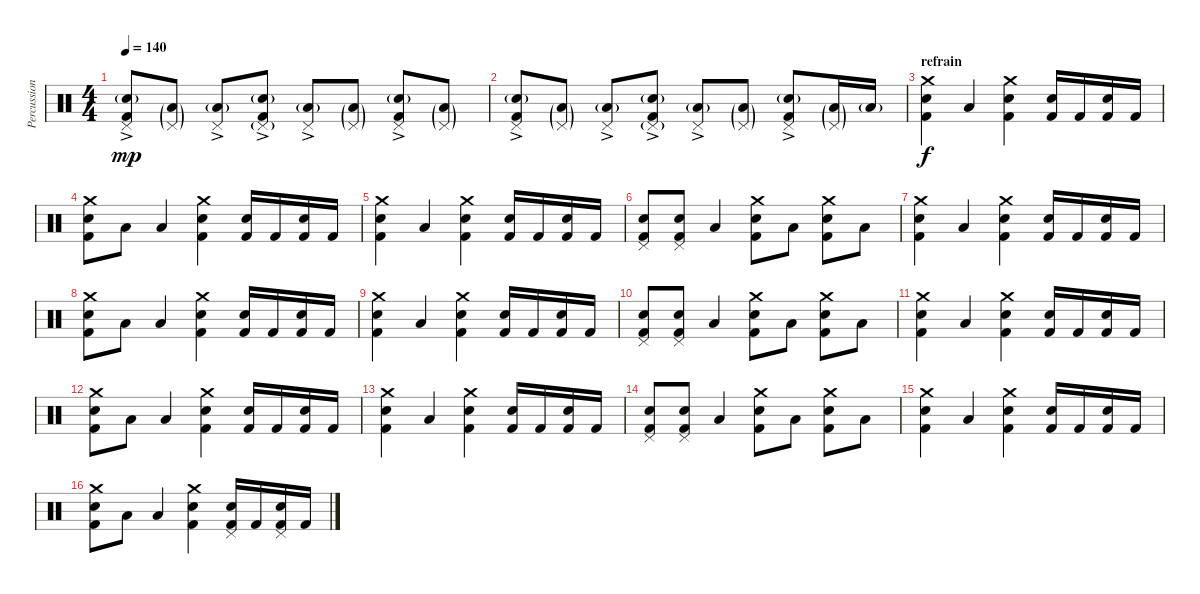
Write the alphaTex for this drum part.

\track ("Percussions" "Percussion") {instrument percussion}
\staff {score}
\articulation defaults
\ts (4 4)
\tempo 140
\clef neutral
\ks c
("Pedal Hi-Hat (hit)"{ac} "Electric Snare (hit)"{g ac} "Kick (hit) 2").8{dy mp} ("Pedal Hi-Hat (hit)"{g} "Low Tom (hit)"{g}).8 ("Pedal Hi-Hat (hit)"{ac} "Low Tom (hit)"{g}).8 ("Pedal Hi-Hat (hit)"{g} "Electric Snare (hit)"{g ac} "Kick (hit) 2").8 ("Pedal Hi-Hat (hit)"{ac} "Low Tom (hit)"{g}).8 ("Pedal Hi-Hat (hit)"{g} "Low Tom (hit)"{g}).8 ("Pedal Hi-Hat (hit)"{ac} "Electric Snare (hit)"{g ac} "Kick (hit) 2").8 ("Pedal Hi-Hat (hit)"{g} "Low Tom (hit)"{g}).8 |
("Pedal Hi-Hat (hit)"{ac} "Electric Snare (hit)"{g ac} "Kick (hit) 2").8 ("Pedal Hi-Hat (hit)"{g} "Low Tom (hit)"{g}).8 ("Pedal Hi-Hat (hit)"{ac} "Low Tom (hit)"{g}).8 ("Pedal Hi-Hat (hit)"{g} "Electric Snare (hit)"{g ac} "Kick (hit) 2").8 ("Pedal Hi-Hat (hit)"{ac} "Low Tom (hit)"{g}).8 ("Pedal Hi-Hat (hit)"{g} "Low Tom (hit)"{g}).8 ("Pedal Hi-Hat (hit)"{ac} "Electric Snare (hit)"{g ac} "Kick (hit) 2").8 ("Pedal Hi-Hat (hit)"{g} "Low Tom (hit)"{g}).16 "Low Tom (hit)"{g}.16 |
\section ("" "refrain")
("Crash medium (hit)" "Electric Snare (hit)" "Kick (hit) 2").4{dy f} "Low Tom (hit)".4 ("Crash medium (hit)" "Electric Snare (hit)" "Kick (hit) 2").4 ("Electric Snare (hit)" "Kick (hit) 2").16 "Kick (hit) 2".16 ("Electric Snare (hit)" "Kick (hit) 2").16 "Kick (hit) 2".16 |
("Crash medium (hit)" "Electric Snare (hit)" "Kick (hit) 2").8 "Low Tom (hit)".8 "Low Tom (hit)".4 ("Crash medium (hit)" "Electric Snare (hit)" "Kick (hit) 2").4 ("Electric Snare (hit)" "Kick (hit) 2").16 "Kick (hit) 2".16 ("Electric Snare (hit)" "Kick (hit) 2").16 "Kick (hit) 2".16 |
("Crash medium (hit)" "Electric Snare (hit)" "Kick (hit) 2").4 "Low Tom (hit)".4 ("Crash medium (hit)" "Electric Snare (hit)" "Kick (hit) 2").4 ("Electric Snare (hit)" "Kick (hit) 2").16 "Kick (hit) 2".16 ("Electric Snare (hit)" "Kick (hit) 2").16 "Kick (hit) 2".16 |
("Pedal Hi-Hat (hit)" "Electric Snare (hit)" "Kick (hit) 2").8 ("Pedal Hi-Hat (hit)" "Electric Snare (hit)" "Kick (hit) 2").8 "Low Tom (hit)".4 ("Crash medium (hit)" "Electric Snare (hit)" "Kick (hit) 2").8 "Low Tom (hit)".8 ("Crash medium (hit)" "Electric Snare (hit)" "Kick (hit) 2").8 "Low Tom (hit)".8 |
("Crash medium (hit)" "Electric Snare (hit)" "Kick (hit) 2").4 "Low Tom (hit)".4 ("Crash medium (hit)" "Electric Snare (hit)" "Kick (hit) 2").4 ("Electric Snare (hit)" "Kick (hit) 2").16 "Kick (hit) 2".16 ("Electric Snare (hit)" "Kick (hit) 2").16 "Kick (hit) 2".16 |
("Crash medium (hit)" "Electric Snare (hit)" "Kick (hit) 2").8 "Low Tom (hit)".8 "Low Tom (hit)".4 ("Crash medium (hit)" "Electric Snare (hit)" "Kick (hit) 2").4 ("Electric Snare (hit)" "Kick (hit) 2").16 "Kick (hit) 2".16 ("Electric Snare (hit)" "Kick (hit) 2").16 "Kick (hit) 2".16 |
("Crash medium (hit)" "Electric Snare (hit)" "Kick (hit) 2").4 "Low Tom (hit)".4 ("Crash medium (hit)" "Electric Snare (hit)" "Kick (hit) 2").4 ("Electric Snare (hit)" "Kick (hit) 2").16 "Kick (hit) 2".16 ("Electric Snare (hit)" "Kick (hit) 2").16 "Kick (hit) 2".16 |
("Pedal Hi-Hat (hit)" "Electric Snare (hit)" "Kick (hit) 2").8 ("Pedal Hi-Hat (hit)" "Electric Snare (hit)" "Kick (hit) 2").8 "Low Tom (hit)".4 ("Crash medium (hit)" "Electric Snare (hit)" "Kick (hit) 2").8 "Low Tom (hit)".8 ("Crash medium (hit)" "Electric Snare (hit)" "Kick (hit) 2").8 "Low Tom (hit)".8 |
("Crash medium (hit)" "Electric Snare (hit)" "Kick (hit) 2").4 "Low Tom (hit)".4 ("Crash medium (hit)" "Electric Snare (hit)" "Kick (hit) 2").4 ("Electric Snare (hit)" "Kick (hit) 2").16 "Kick (hit) 2".16 ("Electric Snare (hit)" "Kick (hit) 2").16 "Kick (hit) 2".16 |
("Crash medium (hit)" "Electric Snare (hit)" "Kick (hit) 2").8 "Low Tom (hit)".8 "Low Tom (hit)".4 ("Crash medium (hit)" "Electric Snare (hit)" "Kick (hit) 2").4 ("Electric Snare (hit)" "Kick (hit) 2").16 "Kick (hit) 2".16 ("Electric Snare (hit)" "Kick (hit) 2").16 "Kick (hit) 2".16 |
("Crash medium (hit)" "Electric Snare (hit)" "Kick (hit) 2").4 "Low Tom (hit)".4 ("Crash medium (hit)" "Electric Snare (hit)" "Kick (hit) 2").4 ("Electric Snare (hit)" "Kick (hit) 2").16 "Kick (hit) 2".16 ("Electric Snare (hit)" "Kick (hit) 2").16 "Kick (hit) 2".16 |
("Pedal Hi-Hat (hit)" "Electric Snare (hit)" "Kick (hit) 2").8 ("Pedal Hi-Hat (hit)" "Electric Snare (hit)" "Kick (hit) 2").8 "Low Tom (hit)".4 ("Crash medium (hit)" "Electric Snare (hit)" "Kick (hit) 2").8 "Low Tom (hit)".8 ("Crash medium (hit)" "Electric Snare (hit)" "Kick (hit) 2").8 "Low Tom (hit)".8 |
("Crash medium (hit)" "Electric Snare (hit)" "Kick (hit) 2").4 "Low Tom (hit)".4 ("Crash medium (hit)" "Electric Snare (hit)" "Kick (hit) 2").4 ("Electric Snare (hit)" "Kick (hit) 2").16 "Kick (hit) 2".16 ("Electric Snare (hit)" "Kick (hit) 2").16 "Kick (hit) 2".16 |
("Crash medium (hit)" "Electric Snare (hit)" "Kick (hit) 2").8 "Low Tom (hit)".8 "Low Tom (hit)".4 ("Crash medium (hit)" "Electric Snare (hit)" "Kick (hit) 2").4 ("Pedal Hi-Hat (hit)" "Electric Snare (hit)" "Kick (hit) 2").16 "Kick (hit) 2".16 ("Pedal Hi-Hat (hit)" "Electric Snare (hit)" "Kick (hit) 2").16 "Kick (hit) 2".16
